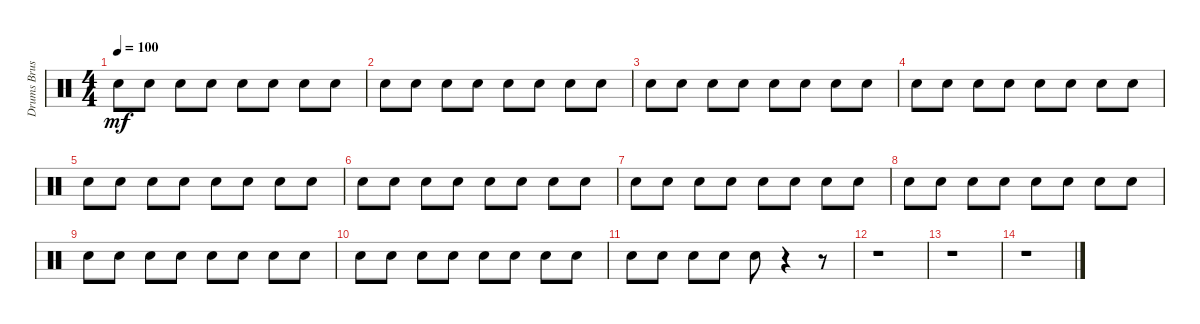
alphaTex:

\track ("Drums Brush Set" "Drums Brus") {instrument percussion}
\staff {score}
\articulation defaults
\ts (4 4)
\tempo 100
\clef neutral
\ks c "Snare (hit) 2".8{dy mf} "Snare (hit) 2".8 "Hand Clap (hit)".8 "Hand Clap (hit)".8 "Snare (hit) 2".8 "Snare (hit) 2".8 "Hand Clap (hit)".8 "Snare (hit) 2".8
|
"Snare (hit) 2".8 "Snare (hit) 2".8 "Hand Clap (hit)".8 "Hand Clap (hit)".8 "Snare (hit) 2".8 "Snare (hit) 2".8 "Hand Clap (hit)".8 "Snare (hit) 2".8 |
"Snare (hit) 2".8 "Snare (hit) 2".8 "Hand Clap (hit)".8 "Snare (hit) 2".8 "Hand Clap (hit)".8 "Snare (hit) 2".8 "Hand Clap (hit)".8 "Snare (hit) 2".8 |
"Snare (hit) 2".8 "Snare (hit) 2".8 "Hand Clap (hit)".8 "Snare (hit) 2".8 "Snare (hit) 2".8 "Snare (hit) 2".8 "Hand Clap (hit)".8 "Snare (hit) 2".8 |
"Snare (hit) 2".8 "Snare (hit) 2".8 "Hand Clap (hit)".8 "Snare (hit) 2".8 "Snare (hit) 2".8 "Snare (hit) 2".8 "Hand Clap (hit)".8 "Snare (hit) 2".8 |
"Snare (hit) 2".8 "Snare (hit) 2".8 "Hand Clap (hit)".8 "Snare (hit) 2".8 "Snare (hit) 2".8 "Snare (hit) 2".8 "Hand Clap (hit)".8 "Snare (hit) 2".8 |
"Snare (hit) 2".8 "Snare (hit) 2".8 "Hand Clap (hit)".8 "Snare (hit) 2".8 "Snare (hit) 2".8 "Snare (hit) 2".8 "Hand Clap (hit)".8 "Snare (hit) 2".8 |
"Snare (hit) 2".8 "Snare (hit) 2".8 "Hand Clap (hit)".8 "Snare (hit) 2".8 "Snare (hit) 2".8 "Snare (hit) 2".8 "Hand Clap (hit)".8 "Snare (hit) 2".8 |
"Snare (hit) 2".8 "Snare (hit) 2".8 "Hand Clap (hit)".8 "Snare (hit) 2".8 "Snare (hit) 2".8 "Snare (hit) 2".8 "Hand Clap (hit)".8 "Snare (hit) 2".8 |
"Snare (hit) 2".8 "Snare (hit) 2".8 "Hand Clap (hit)".8 "Snare (hit) 2".8 "Snare (hit) 2".8 "Snare (hit) 2".8 "Hand Clap (hit)".8 "Snare (hit) 2".8 |
"Hand Clap (hit)".8 "Snare (hit) 2".8 "Hand Clap (hit)".8 "Snare (hit) 2".8 "Hand Clap (hit)".8 r.4 r.8 |
r.1 |
r.1 |
r.1
